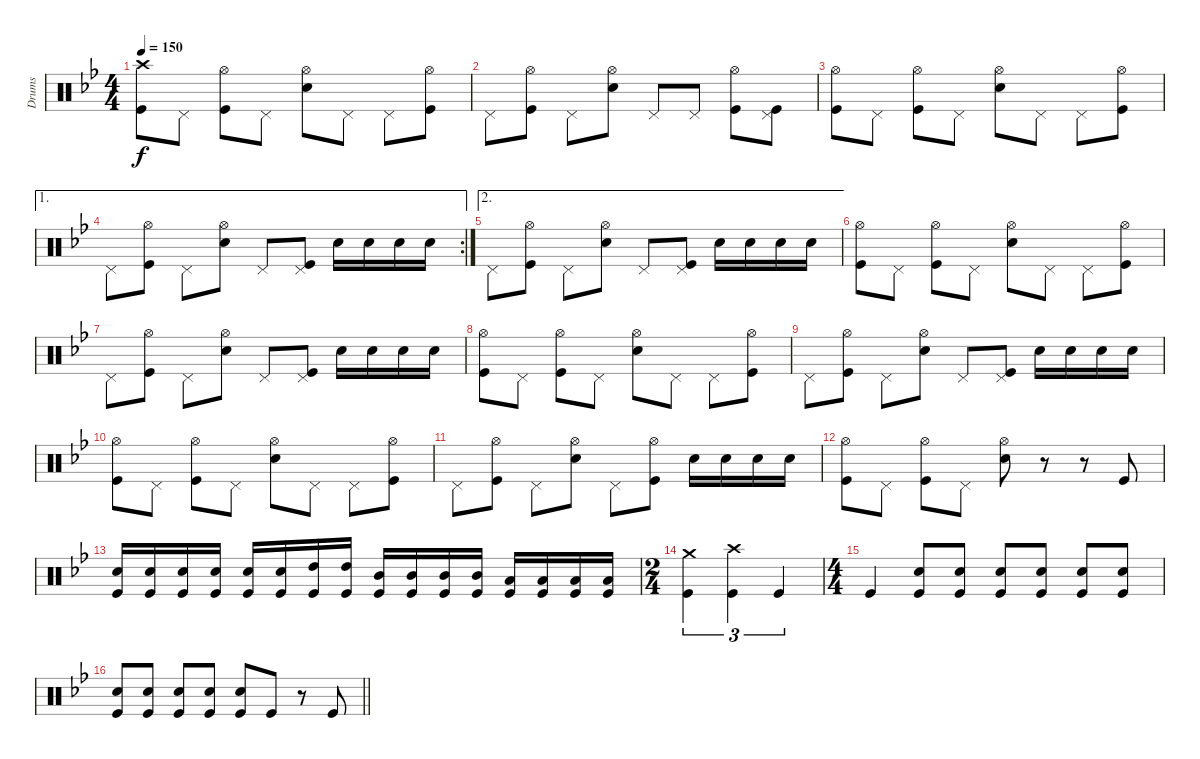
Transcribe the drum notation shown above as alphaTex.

\track ("Drums" "Drums") {instrument percussion}
\staff {score}
\articulation defaults
\ts (4 4)
\tempo 150
\clef neutral
\ks bb
("Crash high (hit)" "Kick (hit)").8{dy f} "Pedal Hi-Hat (hit)".8 ("Hi-Hat (open)" "Kick (hit)").8 "Pedal Hi-Hat (hit)".8 ("Hi-Hat (open)" "Electric Snare (hit)").8 "Pedal Hi-Hat (hit)".8 "Pedal Hi-Hat (hit)".8 ("Hi-Hat (open)" "Kick (hit)").8 |
"Pedal Hi-Hat (hit)".8 ("Hi-Hat (open)" "Kick (hit)").8 "Pedal Hi-Hat (hit)".8 ("Hi-Hat (open)" "Electric Snare (hit)").8 "Pedal Hi-Hat (hit)".8 "Pedal Hi-Hat (hit)".8 ("Hi-Hat (open)" "Kick (hit)").8 ("Pedal Hi-Hat (hit)" "Kick (hit)").8 |
("Hi-Hat (open)" "Kick (hit)").8 "Pedal Hi-Hat (hit)".8 ("Hi-Hat (open)" "Kick (hit)").8 "Pedal Hi-Hat (hit)".8 ("Hi-Hat (open)" "Electric Snare (hit)").8 "Pedal Hi-Hat (hit)".8 "Pedal Hi-Hat (hit)".8 ("Hi-Hat (open)" "Kick (hit)").8 |
\ae 1
\rc 2 "Pedal Hi-Hat (hit)".8
("Hi-Hat (open)" "Kick (hit)").8 "Pedal Hi-Hat (hit)".8 ("Hi-Hat (open)" "Electric Snare (hit)").8 "Pedal Hi-Hat (hit)".8 ("Pedal Hi-Hat (hit)" "Kick (hit)").8 "Electric Snare (hit)".16 "Electric Snare (hit)".16 "Electric Snare (hit)".16 "Electric Snare (hit)".16 |
\ae 2 "Pedal Hi-Hat (hit)".8
("Hi-Hat (open)" "Kick (hit)").8 "Pedal Hi-Hat (hit)".8 ("Hi-Hat (open)" "Electric Snare (hit)").8 "Pedal Hi-Hat (hit)".8 ("Pedal Hi-Hat (hit)" "Kick (hit)").8 "Electric Snare (hit)".16 "Electric Snare (hit)".16 "Electric Snare (hit)".16 "Electric Snare (hit)".16 |
("Hi-Hat (open)" "Kick (hit)").8 "Pedal Hi-Hat (hit)".8 ("Hi-Hat (open)" "Kick (hit)").8 "Pedal Hi-Hat (hit)".8 ("Hi-Hat (open)" "Electric Snare (hit)").8 "Pedal Hi-Hat (hit)".8 "Pedal Hi-Hat (hit)".8 ("Hi-Hat (open)" "Kick (hit)").8 |
"Pedal Hi-Hat (hit)".8 ("Hi-Hat (open)" "Kick (hit)").8 "Pedal Hi-Hat (hit)".8 ("Hi-Hat (open)" "Electric Snare (hit)").8 "Pedal Hi-Hat (hit)".8 ("Pedal Hi-Hat (hit)" "Kick (hit)").8 "Electric Snare (hit)".16 "Electric Snare (hit)".16 "Electric Snare (hit)".16 "Electric Snare (hit)".16 |
("Hi-Hat (open)" "Kick (hit)").8 "Pedal Hi-Hat (hit)".8 ("Hi-Hat (open)" "Kick (hit)").8 "Pedal Hi-Hat (hit)".8 ("Hi-Hat (open)" "Electric Snare (hit)").8 "Pedal Hi-Hat (hit)".8 "Pedal Hi-Hat (hit)".8 ("Hi-Hat (open)" "Kick (hit)").8 |
"Pedal Hi-Hat (hit)".8 ("Hi-Hat (open)" "Kick (hit)").8 "Pedal Hi-Hat (hit)".8 ("Hi-Hat (open)" "Electric Snare (hit)").8 "Pedal Hi-Hat (hit)".8 ("Pedal Hi-Hat (hit)" "Kick (hit)").8 "Electric Snare (hit)".16 "Electric Snare (hit)".16 "Electric Snare (hit)".16 "Electric Snare (hit)".16 |
("Hi-Hat (open)" "Kick (hit)").8 "Pedal Hi-Hat (hit)".8 ("Hi-Hat (open)" "Kick (hit)").8 "Pedal Hi-Hat (hit)".8 ("Hi-Hat (open)" "Electric Snare (hit)").8 "Pedal Hi-Hat (hit)".8 "Pedal Hi-Hat (hit)".8 ("Hi-Hat (open)" "Kick (hit)").8 |
"Pedal Hi-Hat (hit)".8 ("Hi-Hat (open)" "Kick (hit)").8 "Pedal Hi-Hat (hit)".8 ("Hi-Hat (open)" "Electric Snare (hit)").8 "Pedal Hi-Hat (hit)".8 ("Hi-Hat (open)" "Kick (hit)").8 "Electric Snare (hit)".16 "Electric Snare (hit)".16 "Electric Snare (hit)".16 "Electric Snare (hit)".16 |
("Hi-Hat (open)" "Kick (hit)").8 "Pedal Hi-Hat (hit)".8 ("Hi-Hat (open)" "Kick (hit)").8 "Pedal Hi-Hat (hit)".8 ("Hi-Hat (open)" "Electric Snare (hit)").8 r.8 r.8 "Kick (hit)".8 |
("Electric Snare (hit)" "Kick (hit)").16 ("Electric Snare (hit)" "Kick (hit)").16 ("Electric Snare (hit)" "Kick (hit)").16 ("Electric Snare (hit)" "Kick (hit)").16 ("Electric Snare (hit)" "Kick (hit)").16 ("Electric Snare (hit)" "Kick (hit)").16 ("High Tom (hit)" "Kick (hit)").16 ("High Tom (hit)" "Kick (hit)").16 ("Mid Tom (hit)" "Kick (hit)").16 ("Mid Tom (hit)" "Kick (hit)").16 ("Mid Tom (hit)" "Kick (hit)").16 ("Mid Tom (hit)" "Kick (hit)").16 ("Low Tom (hit)" "Kick (hit)").16 ("Low Tom (hit)" "Kick (hit)").16 ("Low Tom (hit)" "Kick (hit)").16 ("Low Tom (hit)" "Kick (hit)").16 |
\ts (2 4)
("Crash medium (hit)" "Kick (hit)").4{tu (3 2)} ("Crash high (hit)" "Kick (hit)").4{tu (3 2)} "Kick (hit)".4{tu (3 2)} |
\ts (4 4)
"Kick (hit)".4 ("Electric Snare (hit)" "Kick (hit)").8 ("Electric Snare (hit)" "Kick (hit)").8 ("Electric Snare (hit)" "Kick (hit)").8 ("Electric Snare (hit)" "Kick (hit)").8 ("Electric Snare (hit)" "Kick (hit)").8 ("Electric Snare (hit)" "Kick (hit)").8 |
\barLineRight lightlight
("Electric Snare (hit)" "Kick (hit)").8 ("Electric Snare (hit)" "Kick (hit)").8 ("Electric Snare (hit)" "Kick (hit)").8 ("Electric Snare (hit)" "Kick (hit)").8 ("Electric Snare (hit)" "Kick (hit)").8 "Kick (hit)".8 r.8 "Kick (hit)".8
